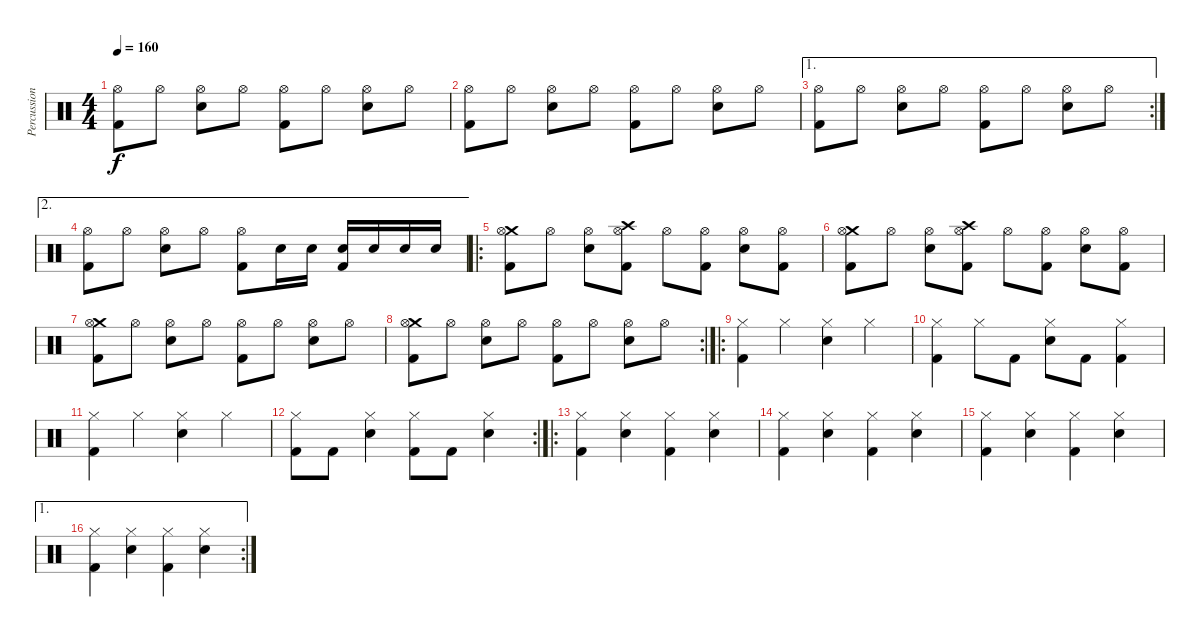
\track ("Percussions" "Percussion") {instrument percussion}
\staff {score}
\articulation defaults
\ts (4 4)
\tempo 160
\clef neutral
\ks c
("Hi-Hat (open)" "Kick (hit) 2").8{dy f} "Hi-Hat (open)".8 ("Hi-Hat (open)" "Snare (hit) 2").8 "Hi-Hat (open)".8 ("Hi-Hat (open)" "Kick (hit) 2").8 "Hi-Hat (open)".8 ("Hi-Hat (open)" "Snare (hit) 2").8 "Hi-Hat (open)".8 |
("Hi-Hat (open)" "Kick (hit) 2").8 "Hi-Hat (open)".8 ("Hi-Hat (open)" "Snare (hit) 2").8 "Hi-Hat (open)".8 ("Hi-Hat (open)" "Kick (hit) 2").8 "Hi-Hat (open)".8 ("Hi-Hat (open)" "Snare (hit) 2").8 "Hi-Hat (open)".8 |
\ae 1
\rc 2
("Hi-Hat (open)" "Kick (hit) 2").8 "Hi-Hat (open)".8 ("Hi-Hat (open)" "Snare (hit) 2").8 "Hi-Hat (open)".8 ("Hi-Hat (open)" "Kick (hit) 2").8 "Hi-Hat (open)".8 ("Hi-Hat (open)" "Snare (hit) 2").8 "Hi-Hat (open)".8 |
\ae 2
("Hi-Hat (open)" "Kick (hit) 2").8 "Hi-Hat (open)".8 ("Hi-Hat (open)" "Snare (hit) 2").8 "Hi-Hat (open)".8 ("Hi-Hat (open)" "Kick (hit) 2").8 "Snare (hit) 2".16 "Snare (hit) 2".16 ("Snare (hit) 2" "Kick (hit) 2").16 "Snare (hit) 2".16 "Snare (hit) 2".16 "Snare (hit) 2".16 |
\ro
("Crash medium (hit)" "Hi-Hat (open)" "Kick (hit) 2").8 "Hi-Hat (open)".8 ("Hi-Hat (open)" "Snare (hit) 2").8 ("Crash high (hit)" "Hi-Hat (open)" "Kick (hit) 2").8 "Hi-Hat (open)".8 ("Hi-Hat (open)" "Kick (hit) 2").8 ("Hi-Hat (open)" "Snare (hit) 2").8 ("Hi-Hat (open)" "Kick (hit) 2").8 |
("Crash medium (hit)" "Hi-Hat (open)" "Kick (hit) 2").8 "Hi-Hat (open)".8 ("Hi-Hat (open)" "Snare (hit) 2").8 ("Crash high (hit)" "Hi-Hat (open)" "Kick (hit) 2").8 "Hi-Hat (open)".8 ("Hi-Hat (open)" "Kick (hit) 2").8 ("Hi-Hat (open)" "Snare (hit) 2").8 ("Hi-Hat (open)" "Kick (hit) 2").8 |
("Crash medium (hit)" "Hi-Hat (open)" "Kick (hit) 2").8 "Hi-Hat (open)".8 ("Hi-Hat (open)" "Snare (hit) 2").8 "Hi-Hat (open)".8 ("Hi-Hat (open)" "Kick (hit) 2").8 "Hi-Hat (open)".8 ("Hi-Hat (open)" "Snare (hit) 2").8 "Hi-Hat (open)".8 |
\rc 2
("Crash medium (hit)" "Hi-Hat (open)" "Kick (hit) 2").8 "Hi-Hat (open)".8 ("Hi-Hat (open)" "Snare (hit) 2").8 "Hi-Hat (open)".8 ("Hi-Hat (open)" "Kick (hit) 2").8 "Hi-Hat (open)".8 ("Hi-Hat (open)" "Snare (hit) 2").8 "Hi-Hat (open)".8 |
\ro
("Hi-Hat (closed)" "Kick (hit) 2").4 "Hi-Hat (closed)".4 ("Hi-Hat (closed)" "Snare (hit) 2").4 "Hi-Hat (closed)".4 |
("Hi-Hat (closed)" "Kick (hit) 2").4 "Hi-Hat (closed)".8 "Kick (hit) 2".8 ("Hi-Hat (closed)" "Snare (hit) 2").8 "Kick (hit) 2".8 ("Hi-Hat (closed)" "Kick (hit) 2").4 |
("Hi-Hat (closed)" "Kick (hit) 2").4 "Hi-Hat (closed)".4 ("Hi-Hat (closed)" "Snare (hit) 2").4 "Hi-Hat (closed)".4 |
\rc 2
("Hi-Hat (closed)" "Kick (hit) 2").8 "Kick (hit) 2".8 ("Hi-Hat (closed)" "Snare (hit) 2").4 ("Hi-Hat (closed)" "Kick (hit) 2").8 "Kick (hit) 2".8 ("Hi-Hat (closed)" "Snare (hit) 2").4 |
\ro
("Hi-Hat (closed)" "Kick (hit) 2").4 ("Hi-Hat (closed)" "Snare (hit) 2").4 ("Hi-Hat (closed)" "Kick (hit) 2").4 ("Hi-Hat (closed)" "Snare (hit) 2").4 |
("Hi-Hat (closed)" "Kick (hit) 2").4 ("Hi-Hat (closed)" "Snare (hit) 2").4 ("Hi-Hat (closed)" "Kick (hit) 2").4 ("Hi-Hat (closed)" "Snare (hit) 2").4 |
("Hi-Hat (closed)" "Kick (hit) 2").4 ("Hi-Hat (closed)" "Snare (hit) 2").4 ("Hi-Hat (closed)" "Kick (hit) 2").4 ("Hi-Hat (closed)" "Snare (hit) 2").4 |
\ae 1
\rc 2
("Hi-Hat (closed)" "Kick (hit) 2").4 ("Hi-Hat (closed)" "Snare (hit) 2").4 ("Hi-Hat (closed)" "Kick (hit) 2").4 ("Hi-Hat (closed)" "Snare (hit) 2").4
